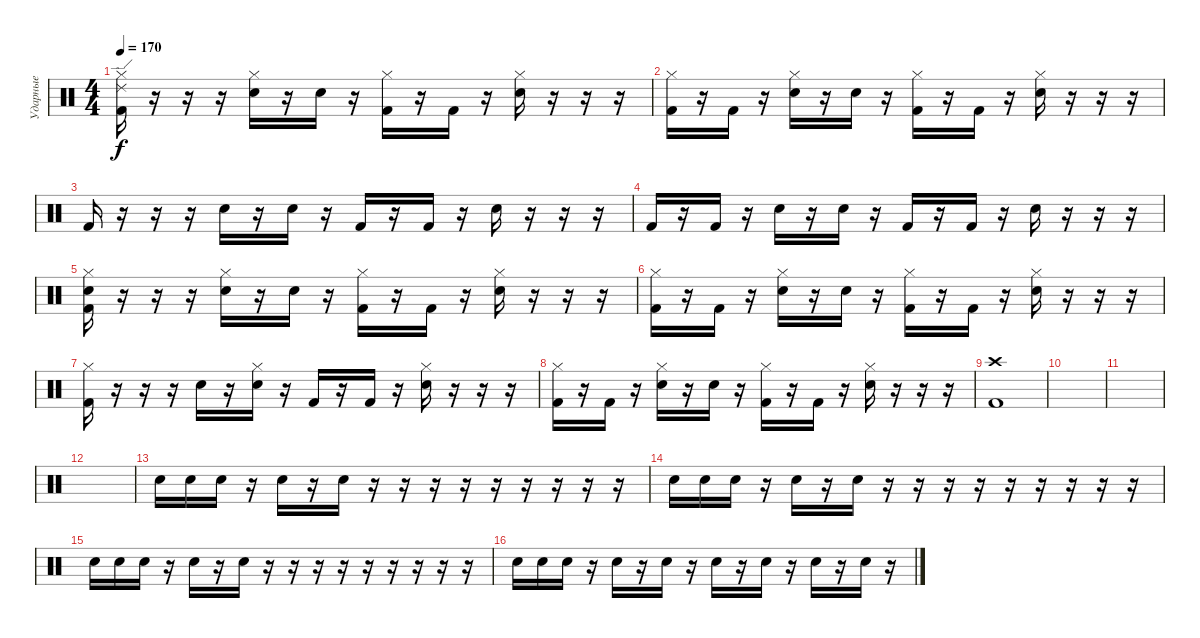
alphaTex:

\track ("Ударные" "Ударные") {instrument percussion}
\staff {score}
\articulation defaults
\ts (4 4)
\tempo 170
\clef neutral
\ks c
("Hi-Hat (closed)" "Ride (edge) 2" "Kick (hit) 2").16{dy f} r.16 r.16 r.16 ("Hi-Hat (closed)" "Snare (hit) 2").16 r.16 "Snare (hit) 2".16 r.16 ("Hi-Hat (closed)" "Kick (hit) 2").16 r.16 "Kick (hit) 2".16 r.16 ("Hi-Hat (closed)" "Snare (hit) 2").16 r.16 r.16 r.16 |
("Hi-Hat (closed)" "Kick (hit) 2").16 r.16 "Kick (hit) 2".16 r.16 ("Hi-Hat (closed)" "Snare (hit) 2").16 r.16 "Snare (hit) 2".16 r.16 ("Hi-Hat (closed)" "Kick (hit) 2").16 r.16 "Kick (hit) 2".16 r.16 ("Hi-Hat (closed)" "Snare (hit) 2").16 r.16 r.16 r.16 |
"Kick (hit) 2".16 r.16 r.16 r.16 "Snare (hit) 2".16 r.16 "Snare (hit) 2".16 r.16 "Kick (hit) 2".16 r.16 "Kick (hit) 2".16 r.16 "Snare (hit) 2".16 r.16 r.16 r.16 |
"Kick (hit) 2".16 r.16 "Kick (hit) 2".16 r.16 "Snare (hit) 2".16 r.16 "Snare (hit) 2".16 r.16 "Kick (hit) 2".16 r.16 "Kick (hit) 2".16 r.16 "Snare (hit) 2".16 r.16 r.16 r.16 |
("Hi-Hat (closed)" "Snare (hit) 2" "Kick (hit) 2").16 r.16 r.16 r.16 ("Hi-Hat (closed)" "Snare (hit) 2").16 r.16 "Snare (hit) 2".16 r.16 ("Hi-Hat (closed)" "Kick (hit) 2").16 r.16 "Kick (hit) 2".16 r.16 ("Hi-Hat (closed)" "Snare (hit) 2").16 r.16 r.16 r.16 |
("Hi-Hat (closed)" "Kick (hit) 2").16 r.16 "Kick (hit) 2".16 r.16 ("Hi-Hat (closed)" "Snare (hit) 2").16 r.16 "Snare (hit) 2".16 r.16 ("Hi-Hat (closed)" "Kick (hit) 2").16 r.16 "Kick (hit) 2".16 r.16 ("Hi-Hat (closed)" "Snare (hit) 2").16 r.16 r.16 r.16 |
("Hi-Hat (closed)" "Kick (hit) 2").16 r.16 r.16 r.16 "Snare (hit) 2".16 r.16 ("Hi-Hat (closed)" "Snare (hit) 2").16 r.16 "Kick (hit) 2".16 r.16 "Kick (hit) 2".16 r.16 ("Hi-Hat (closed)" "Snare (hit) 2").16 r.16 r.16 r.16 |
("Hi-Hat (closed)" "Kick (hit) 2").16 r.16 "Kick (hit) 2".16 r.16 ("Hi-Hat (closed)" "Snare (hit) 2").16 r.16 "Snare (hit) 2".16 r.16 ("Hi-Hat (closed)" "Kick (hit) 2").16 r.16 "Kick (hit) 2".16 r.16 ("Hi-Hat (closed)" "Snare (hit) 2").16 r.16 r.16 r.16 |
("Crash high (hit)" "Kick (hit) 2").1 |
|
|
|
"Snare (hit) 2".16 "Snare (hit) 2".16 "Snare (hit) 2".16 r.16 "Snare (hit) 2".16 r.16 "Snare (hit) 2".16 r.16 r.16 r.16 r.16 r.16 r.16 r.16 r.16 r.16 |
"Snare (hit) 2".16 "Snare (hit) 2".16 "Snare (hit) 2".16 r.16 "Snare (hit) 2".16 r.16 "Snare (hit) 2".16 r.16 r.16 r.16 r.16 r.16 r.16 r.16 r.16 r.16 |
"Snare (hit) 2".16 "Snare (hit) 2".16 "Snare (hit) 2".16 r.16 "Snare (hit) 2".16 r.16 "Snare (hit) 2".16 r.16 r.16 r.16 r.16 r.16 r.16 r.16 r.16 r.16 |
"Snare (hit) 2".16 "Snare (hit) 2".16 "Snare (hit) 2".16 r.16 "Snare (hit) 2".16 r.16 "Snare (hit) 2".16 r.16 "Snare (hit) 2".16 r.16 "Snare (hit) 2".16 r.16 "Snare (hit) 2".16 r.16 "Snare (hit) 2".16 r.16
